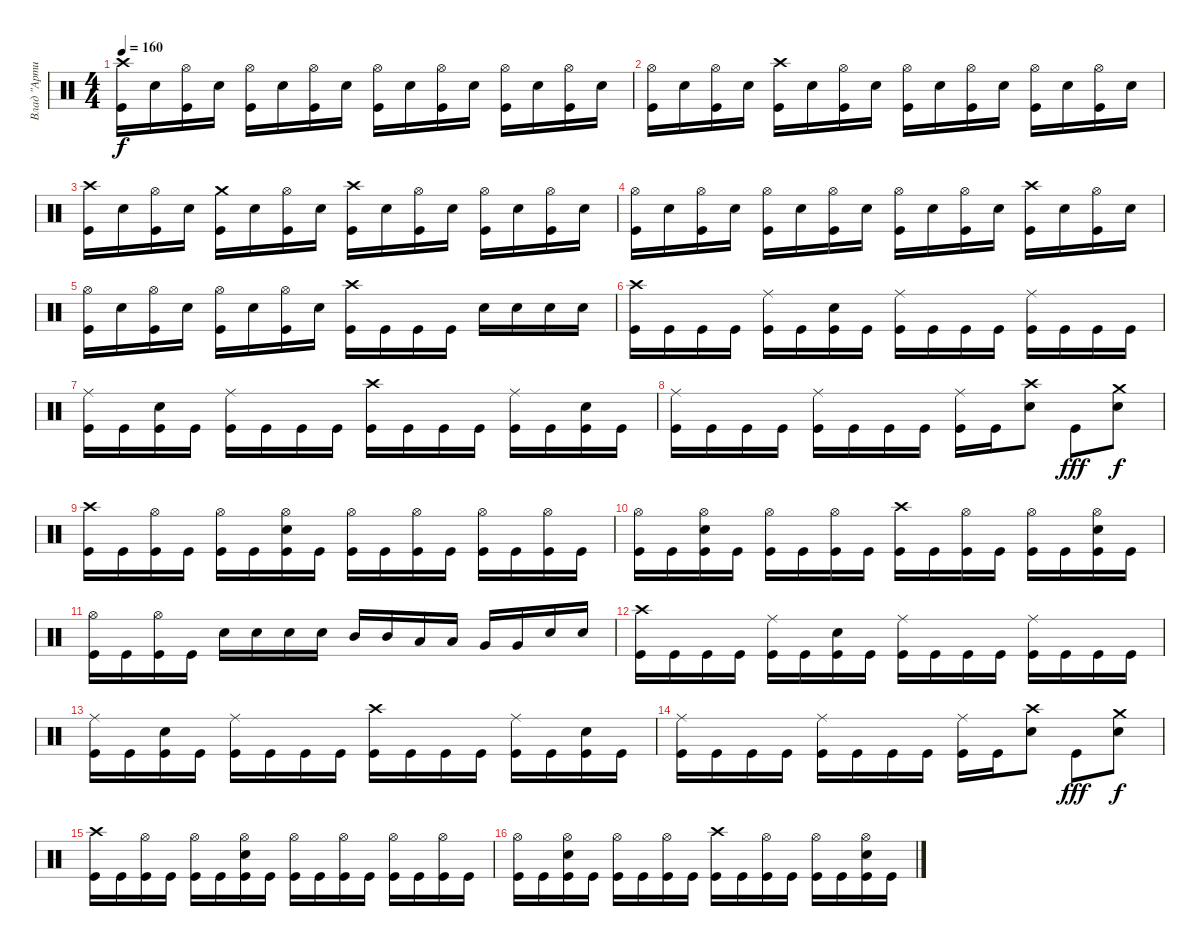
\track ("Влад \"Артист\"" "Влад \"Арти") {instrument percussion}
\staff {score}
\articulation defaults
\ts (4 4)
\tempo 160
\clef neutral
\ks c
("Crash high (hit)" "Kick (hit)").16{dy f} "Snare (hit) 2".16 ("Kick (hit)" "Hi-Hat (open)").16 "Snare (hit) 2".16 ("Kick (hit)" "Hi-Hat (open)").16 "Snare (hit) 2".16 ("Kick (hit)" "Hi-Hat (open)").16 "Snare (hit) 2".16 ("Hi-Hat (open)" "Kick (hit)").16 "Snare (hit) 2".16 ("Kick (hit)" "Hi-Hat (open)").16 "Snare (hit) 2".16 ("Kick (hit)" "Hi-Hat (open)").16 "Snare (hit) 2".16 ("Kick (hit)" "Hi-Hat (open)").16 "Snare (hit) 2".16 |
("Kick (hit)" "Hi-Hat (open)").16 "Snare (hit) 2".16 ("Hi-Hat (open)" "Kick (hit)").16 "Snare (hit) 2".16 ("Crash high (hit)" "Kick (hit)").16 "Snare (hit) 2".16 ("Kick (hit)" "Hi-Hat (open)").16 "Snare (hit) 2".16 ("Kick (hit)" "Hi-Hat (open)").16 "Snare (hit) 2".16 ("Kick (hit)" "Hi-Hat (open)").16 "Snare (hit) 2".16 ("Hi-Hat (open)" "Kick (hit)").16 "Snare (hit) 2".16 ("Kick (hit)" "Hi-Hat (open)").16 "Snare (hit) 2".16 |
("Kick (hit)" "Crash high (hit)").16 "Snare (hit) 2".16 ("Kick (hit)" "Hi-Hat (open)").16 "Snare (hit) 2".16 ("Kick (hit)" "Crash medium (hit)").16 "Snare (hit) 2".16 ("Hi-Hat (open)" "Kick (hit)").16 "Snare (hit) 2".16 ("Crash high (hit)" "Kick (hit)").16 "Snare (hit) 2".16 ("Kick (hit)" "Hi-Hat (open)").16 "Snare (hit) 2".16 ("Kick (hit)" "Hi-Hat (open)").16 "Snare (hit) 2".16 ("Kick (hit)" "Hi-Hat (open)").16 "Snare (hit) 2".16 |
("Hi-Hat (open)" "Kick (hit)").16 "Snare (hit) 2".16 ("Kick (hit)" "Hi-Hat (open)").16 "Snare (hit) 2".16 ("Kick (hit)" "Hi-Hat (open)").16 "Snare (hit) 2".16 ("Kick (hit)" "Hi-Hat (open)").16 "Snare (hit) 2".16 ("Kick (hit)" "Hi-Hat (open)").16 "Snare (hit) 2".16 ("Hi-Hat (open)" "Kick (hit)").16 "Snare (hit) 2".16 ("Crash high (hit)" "Kick (hit)").16 "Snare (hit) 2".16 ("Kick (hit)" "Hi-Hat (open)").16 "Snare (hit) 2".16 |
("Kick (hit)" "Hi-Hat (open)").16 "Snare (hit) 2".16 ("Kick (hit)" "Hi-Hat (open)").16 "Snare (hit) 2".16 ("Hi-Hat (open)" "Kick (hit)").16 "Snare (hit) 2".16 ("Kick (hit)" "Hi-Hat (open)").16 "Snare (hit) 2".16 ("Kick (hit)" "Crash high (hit)").16 "Kick (hit)".16 "Kick (hit)".16 "Kick (hit)".16 "Snare (hit) 2".16 "Snare (hit) 2".16 "Snare (hit) 2".16 "Snare (hit) 2".16 |
("Kick (hit)" "Crash high (hit)").16 "Kick (hit)".16 "Kick (hit)".16 "Kick (hit)".16 ("Kick (hit)" "Ride (middle)").16 "Kick (hit)".16 ("Snare (hit) 2" "Kick (hit)").16 "Kick (hit)".16 ("Kick (hit)" "Ride (middle)").16 "Kick (hit)".16 "Kick (hit)".16 "Kick (hit)".16 ("Kick (hit)" "Ride (middle)").16 "Kick (hit)".16 "Kick (hit)".16 "Kick (hit)".16 |
("Kick (hit)" "Ride (middle)").16 "Kick (hit)".16 ("Kick (hit)" "Snare (hit) 2").16 "Kick (hit)".16 ("Kick (hit)" "Ride (middle)").16 "Kick (hit)".16 "Kick (hit)".16 "Kick (hit)".16 ("Kick (hit)" "Crash high (hit)").16 "Kick (hit)".16 "Kick (hit)".16 "Kick (hit)".16 ("Kick (hit)" "Ride (middle)").16 "Kick (hit)".16 ("Snare (hit) 2" "Kick (hit)").16 "Kick (hit)".16 |
("Kick (hit)" "Ride (middle)").16 "Kick (hit)".16 "Kick (hit)".16 "Kick (hit)".16 ("Kick (hit)" "Ride (middle)").16 "Kick (hit)".16 "Kick (hit)".16 "Kick (hit)".16 ("Kick (hit)" "Ride (middle)").16 "Kick (hit)".16 ("Crash high (hit)" "Snare (hit) 2").8 "Kick (hit)".8{dy fff} ("Crash medium (hit)" "Snare (hit) 2").8{dy f} |
("Kick (hit)" "Crash high (hit)").16 "Kick (hit)".16 ("Hi-Hat (open)" "Kick (hit)").16 "Kick (hit)".16 ("Hi-Hat (open)" "Kick (hit)").16 "Kick (hit)".16 ("Snare (hit) 2" "Hi-Hat (open)" "Kick (hit)").16 "Kick (hit)".16 ("Hi-Hat (open)" "Kick (hit)").16 "Kick (hit)".16 ("Hi-Hat (open)" "Kick (hit)").16 "Kick (hit)".16 ("Hi-Hat (open)" "Kick (hit)").16 "Kick (hit)".16 ("Kick (hit)" "Hi-Hat (open)").16 "Kick (hit)".16 |
("Hi-Hat (open)" "Kick (hit)").16 "Kick (hit)".16 ("Kick (hit)" "Snare (hit) 2" "Hi-Hat (open)").16 "Kick (hit)".16 ("Hi-Hat (open)" "Kick (hit)").16 "Kick (hit)".16 ("Hi-Hat (open)" "Kick (hit)").16 "Kick (hit)".16 ("Crash high (hit)" "Kick (hit)").16 "Kick (hit)".16 ("Kick (hit)" "Hi-Hat (open)").16 "Kick (hit)".16 ("Hi-Hat (open)" "Kick (hit)").16 "Kick (hit)".16 ("Snare (hit) 2" "Hi-Hat (open)" "Kick (hit)").16 "Kick (hit)".16 |
("Kick (hit)" "Hi-Hat (open)").16 "Kick (hit)".16 ("Kick (hit)" "Hi-Hat (open)").16 "Kick (hit)".16 "Snare (hit) 2".16 "Snare (hit) 2".16 "Snare (hit) 2".16 "Snare (hit) 2".16 "Mid Tom (hit)".16 "Mid Tom (hit)".16 "Low Tom (hit)".16 "Low Tom (hit)".16 "Very Low Tom (hit)".16 "Very Low Tom (hit)".16 "Snare (hit) 2".16 "Snare (hit) 2".16 |
("Kick (hit)" "Crash high (hit)").16 "Kick (hit)".16 "Kick (hit)".16 "Kick (hit)".16 ("Kick (hit)" "Ride (middle)").16 "Kick (hit)".16 ("Snare (hit) 2" "Kick (hit)").16 "Kick (hit)".16 ("Kick (hit)" "Ride (middle)").16 "Kick (hit)".16 "Kick (hit)".16 "Kick (hit)".16 ("Kick (hit)" "Ride (middle)").16 "Kick (hit)".16 "Kick (hit)".16 "Kick (hit)".16 |
("Kick (hit)" "Ride (middle)").16 "Kick (hit)".16 ("Kick (hit)" "Snare (hit) 2").16 "Kick (hit)".16 ("Kick (hit)" "Ride (middle)").16 "Kick (hit)".16 "Kick (hit)".16 "Kick (hit)".16 ("Kick (hit)" "Crash high (hit)").16 "Kick (hit)".16 "Kick (hit)".16 "Kick (hit)".16 ("Kick (hit)" "Ride (middle)").16 "Kick (hit)".16 ("Snare (hit) 2" "Kick (hit)").16 "Kick (hit)".16 |
("Kick (hit)" "Ride (middle)").16 "Kick (hit)".16 "Kick (hit)".16 "Kick (hit)".16 ("Kick (hit)" "Ride (middle)").16 "Kick (hit)".16 "Kick (hit)".16 "Kick (hit)".16 ("Kick (hit)" "Ride (middle)").16 "Kick (hit)".16 ("Crash high (hit)" "Snare (hit) 2").8 "Kick (hit)".8{dy fff} ("Crash medium (hit)" "Snare (hit) 2").8{dy f} |
("Kick (hit)" "Crash high (hit)").16 "Kick (hit)".16 ("Hi-Hat (open)" "Kick (hit)").16 "Kick (hit)".16 ("Hi-Hat (open)" "Kick (hit)").16 "Kick (hit)".16 ("Snare (hit) 2" "Hi-Hat (open)" "Kick (hit)").16 "Kick (hit)".16 ("Hi-Hat (open)" "Kick (hit)").16 "Kick (hit)".16 ("Hi-Hat (open)" "Kick (hit)").16 "Kick (hit)".16 ("Hi-Hat (open)" "Kick (hit)").16 "Kick (hit)".16 ("Kick (hit)" "Hi-Hat (open)").16 "Kick (hit)".16 |
("Hi-Hat (open)" "Kick (hit)").16 "Kick (hit)".16 ("Kick (hit)" "Snare (hit) 2" "Hi-Hat (open)").16 "Kick (hit)".16 ("Hi-Hat (open)" "Kick (hit)").16 "Kick (hit)".16 ("Hi-Hat (open)" "Kick (hit)").16 "Kick (hit)".16 ("Crash high (hit)" "Kick (hit)").16 "Kick (hit)".16 ("Kick (hit)" "Hi-Hat (open)").16 "Kick (hit)".16 ("Hi-Hat (open)" "Kick (hit)").16 "Kick (hit)".16 ("Snare (hit) 2" "Hi-Hat (open)" "Kick (hit)").16 "Kick (hit)".16
